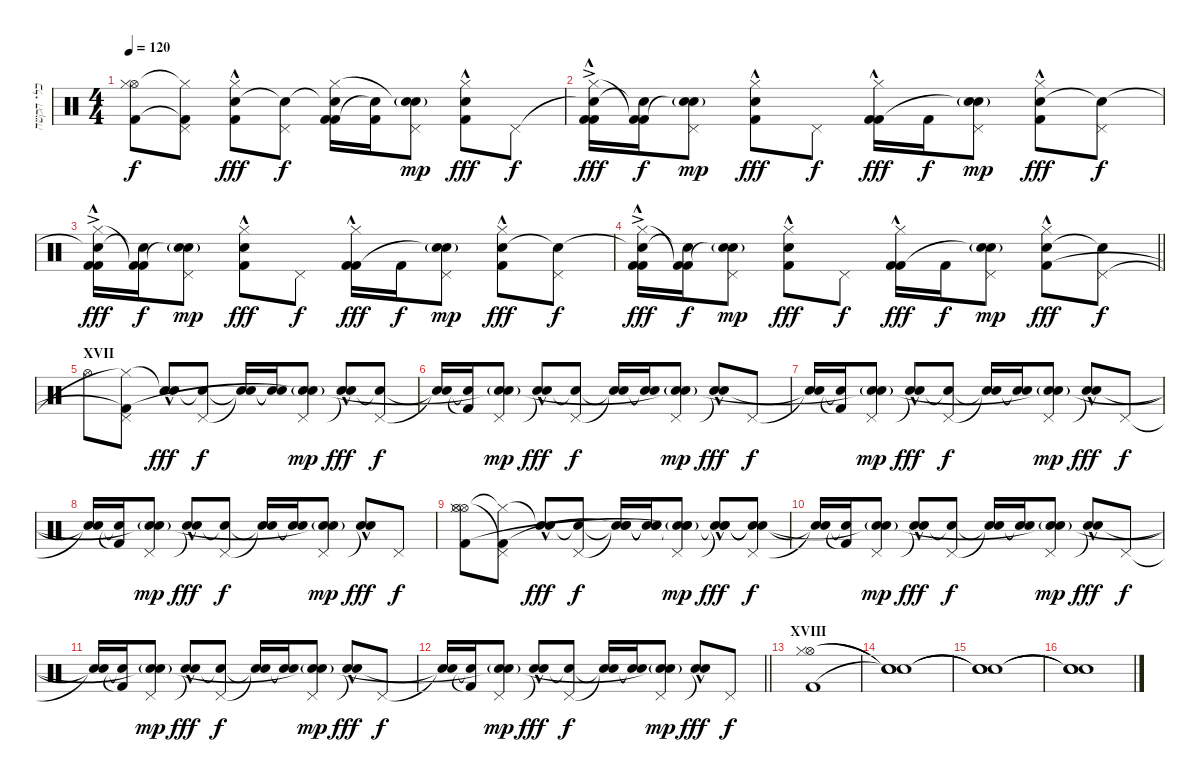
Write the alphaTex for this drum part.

\track ("כלי הקשה" "כלי הקשה") {instrument percussion}
\staff {score}
\articulation defaults
\ts (4 4)
\tempo 120
\clef neutral
\ks c
("Hi-Hat (open)" "Hi-Hat (closed)" "Kick (hit) 2").8{dy f} ("Pedal Hi-Hat (hit)" "Hi-Hat (closed)"{t} "Kick (hit) 2"{t}).8 ("Hand Clap (hit)"{hac} "Hi-Hat (closed)" "Kick (hit) 2").8{dy fff} ("Snare (hit)"{t} "Pedal Hi-Hat (hit)").8{dy f} ("Snare (hit)"{t} "Kick (hit) 2" "Hi-Hat (closed)" "Kick (hit) 2").16 ("Kick (hit) 2" "Snare (hit)"{t}).16 ("Hand Clap (hit)"{g} "Pedal Hi-Hat (hit)" "Snare (hit)"{t}).8{dy mp} ("Hand Clap (hit)"{hac} "Hi-Hat (closed)" "Kick (hit) 2").8{dy fff} "Pedal Hi-Hat (hit)".8{dy f} |
("Snare (hit)"{t} "Kick (hit) 2"{ac} "Hi-Hat (closed)"{hac} "Kick (hit) 2"{hac}).16{dy fff} ("Snare (hit)"{t} "Kick (hit) 2" "Kick (hit) 2"{t}).16{dy f} ("Hand Clap (hit)"{g} "Pedal Hi-Hat (hit)" "Snare (hit)"{t}).8{dy mp} ("Hand Clap (hit)"{hac} "Hi-Hat (closed)"{hac} "Kick (hit) 2"{hac}).8{dy fff} "Pedal Hi-Hat (hit)".8{dy f} ("Kick (hit) 2" "Hi-Hat (closed)"{hac} "Kick (hit) 2"{hac}).16{dy fff} "Kick (hit) 2".16{dy f} ("Hand Clap (hit)"{g} "Pedal Hi-Hat (hit)" "Snare (hit)"{t}).8{dy mp} ("Hand Clap (hit)"{hac} "Hi-Hat (closed)"{hac} "Kick (hit) 2"{hac}).8{dy fff} ("Snare (hit)"{t} "Pedal Hi-Hat (hit)").8{dy f} |
("Snare (hit)"{t} "Kick (hit) 2"{ac} "Hi-Hat (closed)"{hac} "Kick (hit) 2"{hac}).16{dy fff} ("Snare (hit)"{t} "Kick (hit) 2" "Kick (hit) 2"{t}).16{dy f} ("Hand Clap (hit)"{g} "Pedal Hi-Hat (hit)" "Snare (hit)"{t}).8{dy mp} ("Hand Clap (hit)"{hac} "Hi-Hat (closed)"{hac} "Kick (hit) 2"{hac}).8{dy fff} "Pedal Hi-Hat (hit)".8{dy f} ("Kick (hit) 2" "Hi-Hat (closed)"{hac} "Kick (hit) 2"{hac}).16{dy fff} "Kick (hit) 2".16{dy f} ("Hand Clap (hit)"{g} "Pedal Hi-Hat (hit)" "Snare (hit)"{t}).8{dy mp} ("Hand Clap (hit)"{hac} "Hi-Hat (closed)"{hac} "Kick (hit) 2"{hac}).8{dy fff} ("Snare (hit)"{t} "Pedal Hi-Hat (hit)").8{dy f} |
\barLineRight lightlight
("Snare (hit)"{t} "Kick (hit) 2"{ac} "Hi-Hat (closed)"{hac} "Kick (hit) 2"{hac}).16{dy fff} ("Snare (hit)"{t} "Kick (hit) 2" "Kick (hit) 2"{t}).16{dy f} ("Hand Clap (hit)"{g} "Pedal Hi-Hat (hit)" "Snare (hit)"{t}).8{dy mp} ("Hand Clap (hit)"{hac} "Hi-Hat (closed)"{hac} "Kick (hit) 2"{hac}).8{dy fff} "Pedal Hi-Hat (hit)".8{dy f} ("Kick (hit) 2" "Hi-Hat (closed)"{hac} "Kick (hit) 2"{hac}).16{dy fff} "Kick (hit) 2".16{dy f} ("Hand Clap (hit)"{g} "Pedal Hi-Hat (hit)" "Snare (hit)"{t}).8{dy mp} ("Hand Clap (hit)"{hac} "Hi-Hat (closed)"{hac} "Kick (hit) 2"{hac}).8{dy fff} ("Snare (hit)"{t} "Pedal Hi-Hat (hit)").8{dy f} |
\section ("" "XVII")
"Hi-Hat (open)".8 ("Pedal Hi-Hat (hit)" "Hi-Hat (closed)"{t} "Kick (hit) 2"{t}).8 ("Hand Clap (hit)"{hac} "Snare (hit)"{t}).8{dy fff} ("Snare (hit)"{t} "Pedal Hi-Hat (hit)").8{dy f} ("Snare (hit)"{t} "Snare (hit)"{t}).16 ("Snare (hit)"{t} "Snare (hit)"{t}).16 ("Hand Clap (hit)"{g} "Pedal Hi-Hat (hit)" "Snare (hit)"{t}).8{dy mp} ("Hand Clap (hit)"{hac} "Snare (hit)"{t}).8{dy fff} ("Snare (hit)"{t} "Pedal Hi-Hat (hit)").8{dy f} |
("Snare (hit)"{t} "Snare (hit)"{t}).16 ("Snare (hit)"{t} "Kick (hit) 2"{t}).16 ("Hand Clap (hit)"{g} "Pedal Hi-Hat (hit)" "Snare (hit)"{t}).8{dy mp} ("Hand Clap (hit)"{hac} "Snare (hit)"{t}).8{dy fff} ("Snare (hit)"{t} "Pedal Hi-Hat (hit)").8{dy f} ("Snare (hit)"{t} "Snare (hit)"{t}).16 ("Snare (hit)"{t} "Snare (hit)"{t}).16 ("Hand Clap (hit)"{g} "Pedal Hi-Hat (hit)" "Snare (hit)"{t}).8{dy mp} ("Hand Clap (hit)"{hac} "Snare (hit)"{t}).8{dy fff} "Pedal Hi-Hat (hit)".8{dy f} |
("Snare (hit)"{t} "Snare (hit)"{t}).16 ("Snare (hit)"{t} "Kick (hit) 2"{t}).16 ("Hand Clap (hit)"{g} "Pedal Hi-Hat (hit)" "Snare (hit)"{t}).8{dy mp} ("Hand Clap (hit)"{hac} "Snare (hit)"{t}).8{dy fff} ("Snare (hit)"{t} "Pedal Hi-Hat (hit)").8{dy f} ("Snare (hit)"{t} "Snare (hit)"{t}).16 ("Snare (hit)"{t} "Snare (hit)"{t}).16 ("Hand Clap (hit)"{g} "Pedal Hi-Hat (hit)" "Snare (hit)"{t}).8{dy mp} ("Hand Clap (hit)"{hac} "Snare (hit)"{t}).8{dy fff} "Pedal Hi-Hat (hit)".8{dy f} |
("Snare (hit)"{t} "Snare (hit)"{t}).16 ("Snare (hit)"{t} "Kick (hit) 2"{t}).16 ("Hand Clap (hit)"{g} "Pedal Hi-Hat (hit)" "Snare (hit)"{t}).8{dy mp} ("Hand Clap (hit)"{hac} "Snare (hit)"{t}).8{dy fff} ("Snare (hit)"{t} "Pedal Hi-Hat (hit)").8{dy f} ("Snare (hit)"{t} "Snare (hit)"{t}).16 ("Snare (hit)"{t} "Snare (hit)"{t}).16 ("Hand Clap (hit)"{g} "Pedal Hi-Hat (hit)" "Snare (hit)"{t}).8{dy mp} ("Hand Clap (hit)"{hac} "Snare (hit)"{t}).8{dy fff} "Pedal Hi-Hat (hit)".8{dy f} |
("Hi-Hat (open)" "Hi-Hat (open)" "Hi-Hat (closed)" "Kick (hit) 2").8 ("Pedal Hi-Hat (hit)" "Hi-Hat (closed)"{t} "Kick (hit) 2"{t}).8 ("Hand Clap (hit)"{hac} "Snare (hit)"{t}).8{dy fff} ("Snare (hit)"{t} "Pedal Hi-Hat (hit)").8{dy f} ("Snare (hit)"{t} "Snare (hit)"{t} "Snare (hit)"{t}).16 ("Snare (hit)"{t} "Snare (hit)"{t} "Snare (hit)"{t}).16 ("Hand Clap (hit)"{g} "Pedal Hi-Hat (hit)" "Snare (hit)"{t} "Snare (hit)"{t}).8{dy mp} ("Hand Clap (hit)"{hac} "Snare (hit)"{t} "Snare (hit)"{t}).8{dy fff} ("Snare (hit)"{t} "Pedal Hi-Hat (hit)" "Snare (hit)"{t}).8{dy f} |
("Snare (hit)"{t} "Snare (hit)"{t}).16 ("Snare (hit)"{t} "Kick (hit) 2"{t}).16 ("Hand Clap (hit)"{g} "Pedal Hi-Hat (hit)" "Snare (hit)"{t}).8{dy mp} ("Hand Clap (hit)"{hac} "Snare (hit)"{t}).8{dy fff} ("Snare (hit)"{t} "Pedal Hi-Hat (hit)").8{dy f} ("Snare (hit)"{t} "Snare (hit)"{t}).16 ("Snare (hit)"{t} "Snare (hit)"{t}).16 ("Hand Clap (hit)"{g} "Pedal Hi-Hat (hit)" "Snare (hit)"{t}).8{dy mp} ("Hand Clap (hit)"{hac} "Snare (hit)"{t}).8{dy fff} "Pedal Hi-Hat (hit)".8{dy f} |
("Snare (hit)"{t} "Snare (hit)"{t}).16 ("Snare (hit)"{t} "Kick (hit) 2"{t}).16 ("Hand Clap (hit)"{g} "Pedal Hi-Hat (hit)" "Snare (hit)"{t}).8{dy mp} ("Hand Clap (hit)"{hac} "Snare (hit)"{t}).8{dy fff} ("Snare (hit)"{t} "Pedal Hi-Hat (hit)").8{dy f} ("Snare (hit)"{t} "Snare (hit)"{t}).16 ("Snare (hit)"{t} "Snare (hit)"{t}).16 ("Hand Clap (hit)"{g} "Pedal Hi-Hat (hit)" "Snare (hit)"{t}).8{dy mp} ("Hand Clap (hit)"{hac} "Snare (hit)"{t}).8{dy fff} "Pedal Hi-Hat (hit)".8{dy f} |
\barLineRight lightlight
("Snare (hit)"{t} "Snare (hit)"{t}).16 ("Snare (hit)"{t} "Kick (hit) 2"{t}).16 ("Hand Clap (hit)"{g} "Pedal Hi-Hat (hit)" "Snare (hit)"{t}).8{dy mp} ("Hand Clap (hit)"{hac} "Snare (hit)"{t}).8{dy fff} ("Snare (hit)"{t} "Pedal Hi-Hat (hit)").8{dy f} ("Snare (hit)"{t} "Snare (hit)"{t}).16 ("Snare (hit)"{t} "Snare (hit)"{t}).16 ("Hand Clap (hit)"{g} "Pedal Hi-Hat (hit)" "Snare (hit)"{t}).8{dy mp} ("Hand Clap (hit)"{hac} "Snare (hit)"{t}).8{dy fff} "Pedal Hi-Hat (hit)".8{dy f} |
\section ("" "XVIII")
("Hi-Hat (open)" "Hi-Hat (closed)" "Kick (hit) 2").1 |
("Snare (hit)"{t} "Snare (hit)"{t} "Snare (hit)"{t}).1 |
("Snare (hit)"{t} "Snare (hit)"{t} "Snare (hit)"{t}).1 |
("Snare (hit)"{t} "Snare (hit)"{t} "Snare (hit)"{t}).1
